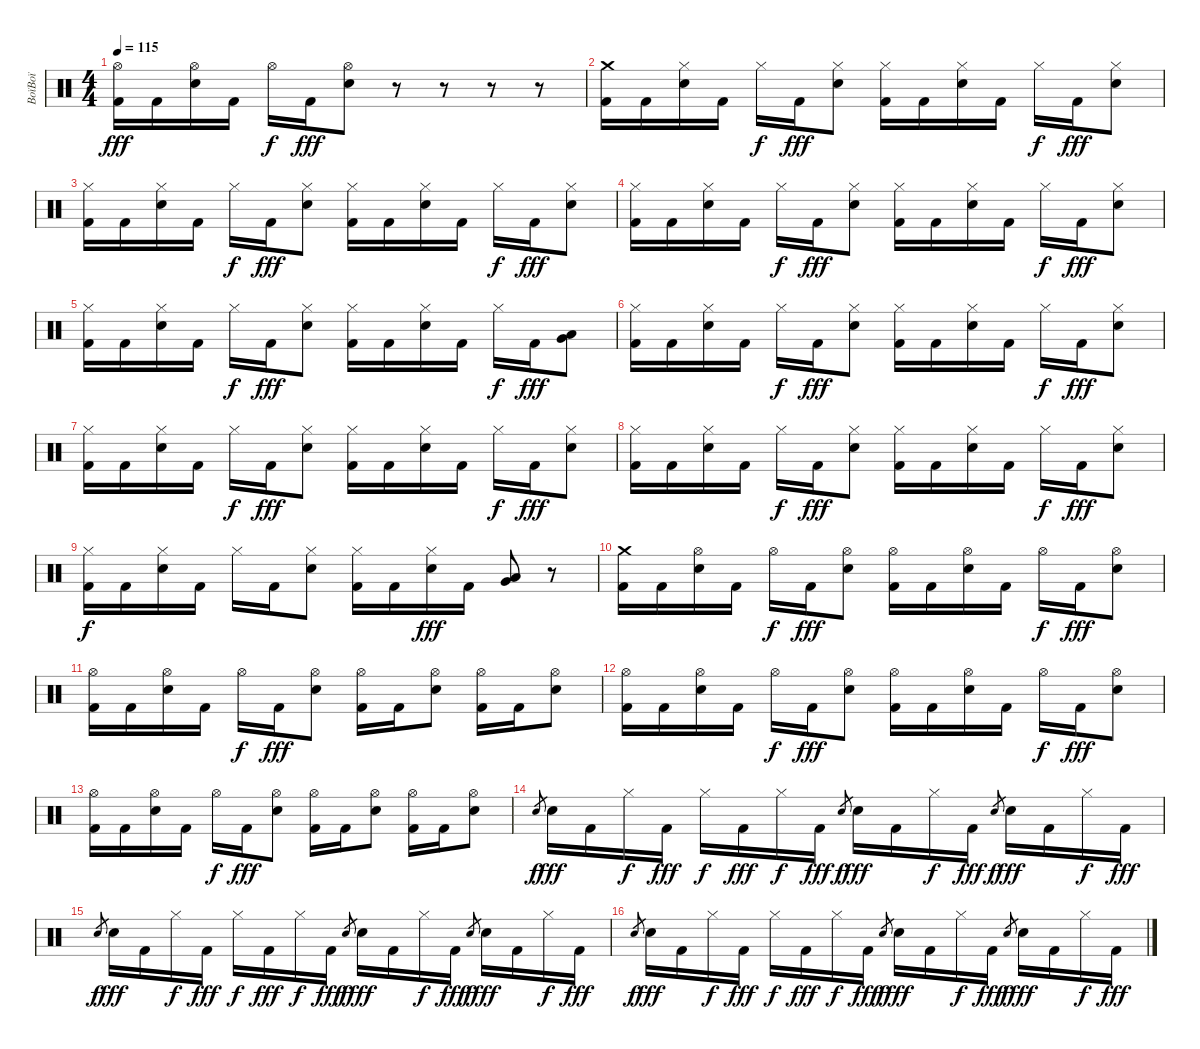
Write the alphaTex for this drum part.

\track ("BoïBoï" "BoïBoï") {instrument percussion}
\staff {score}
\articulation defaults
\ts (4 4)
\tempo 115
\clef neutral
\ks c
("Hi-Hat (open)" "Kick (hit) 2").16{dy fff} "Kick (hit) 2".16 ("Hi-Hat (open)" "Electric Snare (hit)").16 "Kick (hit) 2".16 "Hi-Hat (open)".16{dy f} "Kick (hit) 2".16{dy fff} ("Hi-Hat (open)" "Electric Snare (hit)").8 r.8 r.8 r.8 r.8 |
("Crash medium (hit)" "Kick (hit) 2").16 "Kick (hit) 2".16 ("Hi-Hat (closed)" "Electric Snare (hit)").16 "Kick (hit) 2".16 "Hi-Hat (closed)".16{dy f} "Kick (hit) 2".16{dy fff} ("Hi-Hat (closed)" "Electric Snare (hit)").8 ("Hi-Hat (closed)" "Kick (hit) 2").16 "Kick (hit) 2".16 ("Hi-Hat (closed)" "Electric Snare (hit)").16 "Kick (hit) 2".16 "Hi-Hat (closed)".16{dy f} "Kick (hit) 2".16{dy fff} ("Hi-Hat (closed)" "Electric Snare (hit)").8 |
("Hi-Hat (closed)" "Kick (hit) 2").16 "Kick (hit) 2".16 ("Hi-Hat (closed)" "Electric Snare (hit)").16 "Kick (hit) 2".16 "Hi-Hat (closed)".16{dy f} "Kick (hit) 2".16{dy fff} ("Hi-Hat (closed)" "Electric Snare (hit)").8 ("Hi-Hat (closed)" "Kick (hit) 2").16 "Kick (hit) 2".16 ("Hi-Hat (closed)" "Electric Snare (hit)").16 "Kick (hit) 2".16 "Hi-Hat (closed)".16{dy f} "Kick (hit) 2".16{dy fff} ("Hi-Hat (closed)" "Electric Snare (hit)").8 |
("Hi-Hat (closed)" "Kick (hit) 2").16 "Kick (hit) 2".16 ("Hi-Hat (closed)" "Electric Snare (hit)").16 "Kick (hit) 2".16 "Hi-Hat (closed)".16{dy f} "Kick (hit) 2".16{dy fff} ("Hi-Hat (closed)" "Electric Snare (hit)").8 ("Hi-Hat (closed)" "Kick (hit) 2").16 "Kick (hit) 2".16 ("Hi-Hat (closed)" "Electric Snare (hit)").16 "Kick (hit) 2".16 "Hi-Hat (closed)".16{dy f} "Kick (hit) 2".16{dy fff} ("Hi-Hat (closed)" "Electric Snare (hit)").8 |
("Hi-Hat (closed)" "Kick (hit) 2").16 "Kick (hit) 2".16 ("Hi-Hat (closed)" "Electric Snare (hit)").16 "Kick (hit) 2".16 "Hi-Hat (closed)".16{dy f} "Kick (hit) 2".16{dy fff} ("Hi-Hat (closed)" "Electric Snare (hit)").8 ("Hi-Hat (closed)" "Kick (hit) 2").16 "Kick (hit) 2".16 ("Hi-Hat (closed)" "Electric Snare (hit)").16 "Kick (hit) 2".16 "Hi-Hat (closed)".16{dy f} "Kick (hit) 2".16{dy fff} ("Very Low Tom (hit)" "Low Floor Tom (hit)").8 |
("Hi-Hat (closed)" "Kick (hit) 2").16 "Kick (hit) 2".16 ("Hi-Hat (closed)" "Electric Snare (hit)").16 "Kick (hit) 2".16 "Hi-Hat (closed)".16{dy f} "Kick (hit) 2".16{dy fff} ("Hi-Hat (closed)" "Electric Snare (hit)").8 ("Hi-Hat (closed)" "Kick (hit) 2").16 "Kick (hit) 2".16 ("Hi-Hat (closed)" "Electric Snare (hit)").16 "Kick (hit) 2".16 "Hi-Hat (closed)".16{dy f} "Kick (hit) 2".16{dy fff} ("Hi-Hat (closed)" "Electric Snare (hit)").8 |
("Hi-Hat (closed)" "Kick (hit) 2").16 "Kick (hit) 2".16 ("Hi-Hat (closed)" "Electric Snare (hit)").16 "Kick (hit) 2".16 "Hi-Hat (closed)".16{dy f} "Kick (hit) 2".16{dy fff} ("Hi-Hat (closed)" "Electric Snare (hit)").8 ("Hi-Hat (closed)" "Kick (hit) 2").16 "Kick (hit) 2".16 ("Hi-Hat (closed)" "Electric Snare (hit)").16 "Kick (hit) 2".16 "Hi-Hat (closed)".16{dy f} "Kick (hit) 2".16{dy fff} ("Hi-Hat (closed)" "Electric Snare (hit)").8 |
("Hi-Hat (closed)" "Kick (hit) 2").16 "Kick (hit) 2".16 ("Hi-Hat (closed)" "Electric Snare (hit)").16 "Kick (hit) 2".16 "Hi-Hat (closed)".16{dy f} "Kick (hit) 2".16{dy fff} ("Hi-Hat (closed)" "Electric Snare (hit)").8 ("Hi-Hat (closed)" "Kick (hit) 2").16 "Kick (hit) 2".16 ("Hi-Hat (closed)" "Electric Snare (hit)").16 "Kick (hit) 2".16 "Hi-Hat (closed)".16{dy f} "Kick (hit) 2".16{dy fff} ("Hi-Hat (closed)" "Electric Snare (hit)").8 |
("Hi-Hat (closed)" "Kick (hit) 2").16{dy f} "Kick (hit) 2".16 ("Hi-Hat (closed)" "Electric Snare (hit)").16 "Kick (hit) 2".16 "Hi-Hat (closed)".16 "Kick (hit) 2".16 ("Hi-Hat (closed)" "Electric Snare (hit)").8 ("Hi-Hat (closed)" "Kick (hit) 2").16 "Kick (hit) 2".16 ("Hi-Hat (closed)" "Electric Snare (hit)").16{dy fff} "Kick (hit) 2".16 ("Very Low Tom (hit)" "Low Floor Tom (hit)").8 r.8 |
("Crash medium (hit)" "Kick (hit) 2").16 "Kick (hit) 2".16 ("Hi-Hat (open)" "Electric Snare (hit)").16 "Kick (hit) 2".16 "Hi-Hat (open)".16{dy f} "Kick (hit) 2".16{dy fff} ("Hi-Hat (open)" "Electric Snare (hit)").8 ("Hi-Hat (open)" "Kick (hit) 2").16 "Kick (hit) 2".16 ("Hi-Hat (open)" "Electric Snare (hit)").16 "Kick (hit) 2".16 "Hi-Hat (open)".16{dy f} "Kick (hit) 2".16{dy fff} ("Hi-Hat (open)" "Electric Snare (hit)").8 |
("Hi-Hat (open)" "Kick (hit) 2").16 "Kick (hit) 2".16 ("Hi-Hat (open)" "Electric Snare (hit)").16 "Kick (hit) 2".16 "Hi-Hat (open)".16{dy f} "Kick (hit) 2".16{dy fff} ("Hi-Hat (open)" "Electric Snare (hit)").8 ("Hi-Hat (open)" "Kick (hit) 2").16 "Kick (hit) 2".16 ("Hi-Hat (open)" "Electric Snare (hit)").8 ("Hi-Hat (open)" "Kick (hit) 2").16 "Kick (hit) 2".16 ("Hi-Hat (open)" "Electric Snare (hit)").8 |
("Hi-Hat (open)" "Kick (hit) 2").16 "Kick (hit) 2".16 ("Hi-Hat (open)" "Electric Snare (hit)").16 "Kick (hit) 2".16 "Hi-Hat (open)".16{dy f} "Kick (hit) 2".16{dy fff} ("Hi-Hat (open)" "Electric Snare (hit)").8 ("Hi-Hat (open)" "Kick (hit) 2").16 "Kick (hit) 2".16 ("Hi-Hat (open)" "Electric Snare (hit)").16 "Kick (hit) 2".16 "Hi-Hat (open)".16{dy f} "Kick (hit) 2".16{dy fff} ("Hi-Hat (open)" "Electric Snare (hit)").8 |
("Hi-Hat (open)" "Kick (hit) 2").16 "Kick (hit) 2".16 ("Hi-Hat (open)" "Electric Snare (hit)").16 "Kick (hit) 2".16 "Hi-Hat (open)".16{dy f} "Kick (hit) 2".16{dy fff} ("Hi-Hat (open)" "Electric Snare (hit)").8 ("Hi-Hat (open)" "Kick (hit) 2").16 "Kick (hit) 2".16 ("Hi-Hat (open)" "Electric Snare (hit)").8 ("Hi-Hat (open)" "Kick (hit) 2").16 "Kick (hit) 2".16 ("Hi-Hat (open)" "Electric Snare (hit)").8 |
"Electric Snare (hit)".8{gr dy f} "Electric Snare (hit)".16{dy fff} "Kick (hit) 2".16 "Hi-Hat (closed)".16{dy f} "Kick (hit) 2".16{dy fff} "Hi-Hat (closed)".16{dy f} "Kick (hit) 2".16{dy fff} "Hi-Hat (closed)".16{dy f} "Kick (hit) 2".16{dy fff} "Electric Snare (hit)".8{gr dy f} "Electric Snare (hit)".16{dy fff} "Kick (hit) 2".16 "Hi-Hat (closed)".16{dy f} "Kick (hit) 2".16{dy fff} "Electric Snare (hit)".8{gr dy f} "Electric Snare (hit)".16{dy fff} "Kick (hit) 2".16 "Hi-Hat (closed)".16{dy f} "Kick (hit) 2".16{dy fff} |
"Electric Snare (hit)".8{gr dy f} "Electric Snare (hit)".16{dy fff} "Kick (hit) 2".16 "Hi-Hat (closed)".16{dy f} "Kick (hit) 2".16{dy fff} "Hi-Hat (closed)".16{dy f} "Kick (hit) 2".16{dy fff} "Hi-Hat (closed)".16{dy f} "Kick (hit) 2".16{dy fff} "Electric Snare (hit)".8{gr dy f} "Electric Snare (hit)".16{dy fff} "Kick (hit) 2".16 "Hi-Hat (closed)".16{dy f} "Kick (hit) 2".16{dy fff} "Electric Snare (hit)".8{gr dy f} "Electric Snare (hit)".16{dy fff} "Kick (hit) 2".16 "Hi-Hat (closed)".16{dy f} "Kick (hit) 2".16{dy fff} |
"Electric Snare (hit)".8{gr dy f} "Electric Snare (hit)".16{dy fff} "Kick (hit) 2".16 "Hi-Hat (closed)".16{dy f} "Kick (hit) 2".16{dy fff} "Hi-Hat (closed)".16{dy f} "Kick (hit) 2".16{dy fff} "Hi-Hat (closed)".16{dy f} "Kick (hit) 2".16{dy fff} "Electric Snare (hit)".8{gr dy f} "Electric Snare (hit)".16{dy fff} "Kick (hit) 2".16 "Hi-Hat (closed)".16{dy f} "Kick (hit) 2".16{dy fff} "Electric Snare (hit)".8{gr dy f} "Electric Snare (hit)".16{dy fff} "Kick (hit) 2".16 "Hi-Hat (closed)".16{dy f} "Kick (hit) 2".16{dy fff}
